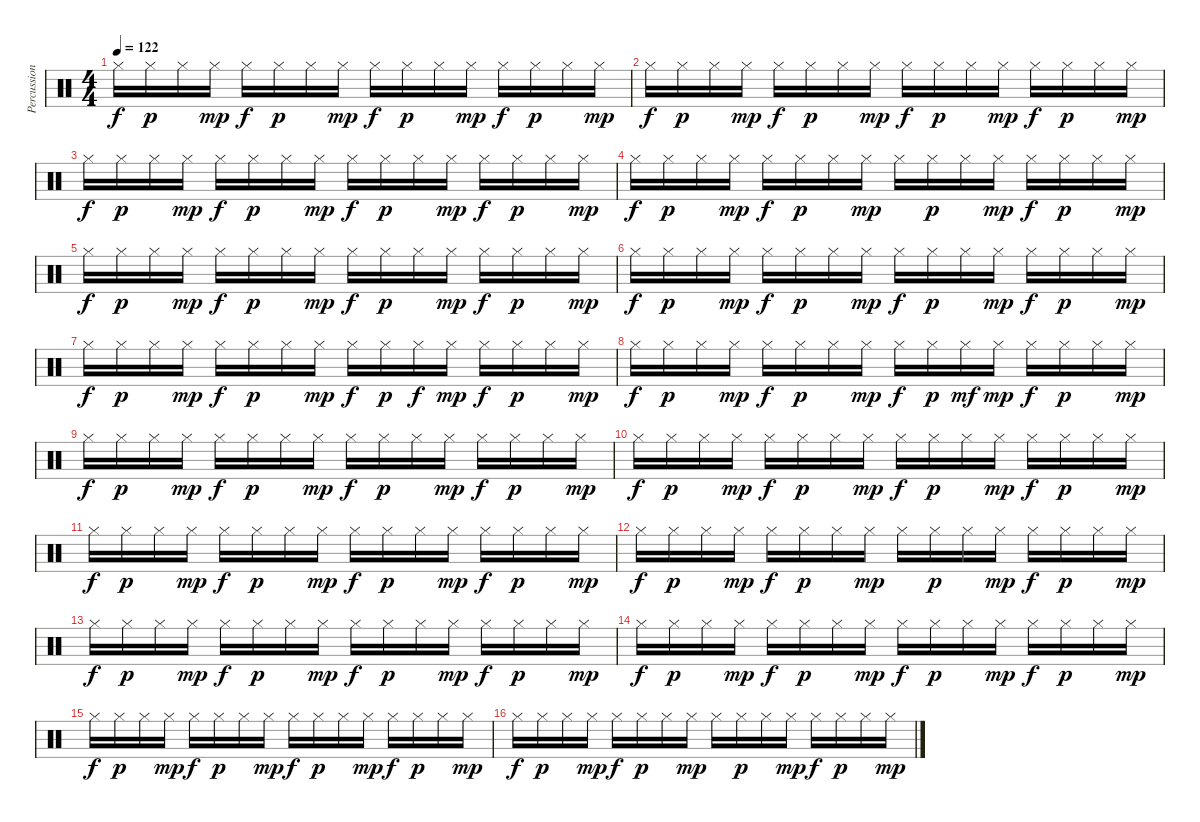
\track ("Percussioni" "Percussion") {instrument percussion}
\staff {score}
\articulation defaults
\ts (4 4)
\tempo 122
\clef neutral
\ks c "Hi-Hat (closed)".16{dy f} "Hi-Hat (closed)".16{dy p} "Hi-Hat (closed)".16 "Hi-Hat (closed)".16{dy mp} "Hi-Hat (closed)".16{dy f} "Hi-Hat (closed)".16{dy p} "Hi-Hat (closed)".16 "Hi-Hat (closed)".16{dy mp} "Hi-Hat (closed)".16{dy f} "Hi-Hat (closed)".16{dy p} "Hi-Hat (closed)".16 "Hi-Hat (closed)".16{dy mp} "Hi-Hat (closed)".16{dy f} "Hi-Hat (closed)".16{dy p} "Hi-Hat (closed)".16 "Hi-Hat (closed)".16{dy mp}
|
"Hi-Hat (closed)".16{dy f} "Hi-Hat (closed)".16{dy p} "Hi-Hat (closed)".16 "Hi-Hat (closed)".16{dy mp} "Hi-Hat (closed)".16{dy f} "Hi-Hat (closed)".16{dy p} "Hi-Hat (closed)".16 "Hi-Hat (closed)".16{dy mp} "Hi-Hat (closed)".16{dy f} "Hi-Hat (closed)".16{dy p} "Hi-Hat (closed)".16 "Hi-Hat (closed)".16{dy mp} "Hi-Hat (closed)".16{dy f} "Hi-Hat (closed)".16{dy p} "Hi-Hat (closed)".16 "Hi-Hat (closed)".16{dy mp} |
"Hi-Hat (closed)".16{dy f} "Hi-Hat (closed)".16{dy p} "Hi-Hat (closed)".16 "Hi-Hat (closed)".16{dy mp} "Hi-Hat (closed)".16{dy f} "Hi-Hat (closed)".16{dy p} "Hi-Hat (closed)".16 "Hi-Hat (closed)".16{dy mp} "Hi-Hat (closed)".16{dy f} "Hi-Hat (closed)".16{dy p} "Hi-Hat (closed)".16 "Hi-Hat (closed)".16{dy mp} "Hi-Hat (closed)".16{dy f} "Hi-Hat (closed)".16{dy p} "Hi-Hat (closed)".16 "Hi-Hat (closed)".16{dy mp} |
"Hi-Hat (closed)".16{dy f} "Hi-Hat (closed)".16{dy p} "Hi-Hat (closed)".16 "Hi-Hat (closed)".16{dy mp} "Hi-Hat (closed)".16{dy f} "Hi-Hat (closed)".16{dy p} "Hi-Hat (closed)".16 "Hi-Hat (closed)".16{dy mp} "Hi-Hat (closed)".16 "Hi-Hat (closed)".16{dy p} "Hi-Hat (closed)".16 "Hi-Hat (closed)".16{dy mp} "Hi-Hat (closed)".16{dy f} "Hi-Hat (closed)".16{dy p} "Hi-Hat (closed)".16 "Hi-Hat (closed)".16{dy mp} |
"Hi-Hat (closed)".16{dy f} "Hi-Hat (closed)".16{dy p} "Hi-Hat (closed)".16 "Hi-Hat (closed)".16{dy mp} "Hi-Hat (closed)".16{dy f} "Hi-Hat (closed)".16{dy p} "Hi-Hat (closed)".16 "Hi-Hat (closed)".16{dy mp} "Hi-Hat (closed)".16{dy f} "Hi-Hat (closed)".16{dy p} "Hi-Hat (closed)".16 "Hi-Hat (closed)".16{dy mp} "Hi-Hat (closed)".16{dy f} "Hi-Hat (closed)".16{dy p} "Hi-Hat (closed)".16 "Hi-Hat (closed)".16{dy mp} |
"Hi-Hat (closed)".16{dy f} "Hi-Hat (closed)".16{dy p} "Hi-Hat (closed)".16 "Hi-Hat (closed)".16{dy mp} "Hi-Hat (closed)".16{dy f} "Hi-Hat (closed)".16{dy p} "Hi-Hat (closed)".16 "Hi-Hat (closed)".16{dy mp} "Hi-Hat (closed)".16{dy f} "Hi-Hat (closed)".16{dy p} "Hi-Hat (closed)".16 "Hi-Hat (closed)".16{dy mp} "Hi-Hat (closed)".16{dy f} "Hi-Hat (closed)".16{dy p} "Hi-Hat (closed)".16 "Hi-Hat (closed)".16{dy mp} |
"Hi-Hat (closed)".16{dy f} "Hi-Hat (closed)".16{dy p} "Hi-Hat (closed)".16 "Hi-Hat (closed)".16{dy mp} "Hi-Hat (closed)".16{dy f} "Hi-Hat (closed)".16{dy p} "Hi-Hat (closed)".16 "Hi-Hat (closed)".16{dy mp} "Hi-Hat (closed)".16{dy f} "Hi-Hat (closed)".16{dy p} "Hi-Hat (closed)".16{dy f} "Hi-Hat (closed)".16{dy mp} "Hi-Hat (closed)".16{dy f} "Hi-Hat (closed)".16{dy p} "Hi-Hat (closed)".16 "Hi-Hat (closed)".16{dy mp} |
"Hi-Hat (closed)".16{dy f} "Hi-Hat (closed)".16{dy p} "Hi-Hat (closed)".16 "Hi-Hat (closed)".16{dy mp} "Hi-Hat (closed)".16{dy f} "Hi-Hat (closed)".16{dy p} "Hi-Hat (closed)".16 "Hi-Hat (closed)".16{dy mp} "Hi-Hat (closed)".16{dy f} "Hi-Hat (closed)".16{dy p} "Hi-Hat (closed)".16{dy mf} "Hi-Hat (closed)".16{dy mp} "Hi-Hat (closed)".16{dy f} "Hi-Hat (closed)".16{dy p} "Hi-Hat (closed)".16 "Hi-Hat (closed)".16{dy mp} |
"Hi-Hat (closed)".16{dy f} "Hi-Hat (closed)".16{dy p} "Hi-Hat (closed)".16 "Hi-Hat (closed)".16{dy mp} "Hi-Hat (closed)".16{dy f} "Hi-Hat (closed)".16{dy p} "Hi-Hat (closed)".16 "Hi-Hat (closed)".16{dy mp} "Hi-Hat (closed)".16{dy f} "Hi-Hat (closed)".16{dy p} "Hi-Hat (closed)".16 "Hi-Hat (closed)".16{dy mp} "Hi-Hat (closed)".16{dy f} "Hi-Hat (closed)".16{dy p} "Hi-Hat (closed)".16 "Hi-Hat (closed)".16{dy mp} |
"Hi-Hat (closed)".16{dy f} "Hi-Hat (closed)".16{dy p} "Hi-Hat (closed)".16 "Hi-Hat (closed)".16{dy mp} "Hi-Hat (closed)".16{dy f} "Hi-Hat (closed)".16{dy p} "Hi-Hat (closed)".16 "Hi-Hat (closed)".16{dy mp} "Hi-Hat (closed)".16{dy f} "Hi-Hat (closed)".16{dy p} "Hi-Hat (closed)".16 "Hi-Hat (closed)".16{dy mp} "Hi-Hat (closed)".16{dy f} "Hi-Hat (closed)".16{dy p} "Hi-Hat (closed)".16 "Hi-Hat (closed)".16{dy mp} |
"Hi-Hat (closed)".16{dy f} "Hi-Hat (closed)".16{dy p} "Hi-Hat (closed)".16 "Hi-Hat (closed)".16{dy mp} "Hi-Hat (closed)".16{dy f} "Hi-Hat (closed)".16{dy p} "Hi-Hat (closed)".16 "Hi-Hat (closed)".16{dy mp} "Hi-Hat (closed)".16{dy f} "Hi-Hat (closed)".16{dy p} "Hi-Hat (closed)".16 "Hi-Hat (closed)".16{dy mp} "Hi-Hat (closed)".16{dy f} "Hi-Hat (closed)".16{dy p} "Hi-Hat (closed)".16 "Hi-Hat (closed)".16{dy mp} |
"Hi-Hat (closed)".16{dy f} "Hi-Hat (closed)".16{dy p} "Hi-Hat (closed)".16 "Hi-Hat (closed)".16{dy mp} "Hi-Hat (closed)".16{dy f} "Hi-Hat (closed)".16{dy p} "Hi-Hat (closed)".16 "Hi-Hat (closed)".16{dy mp} "Hi-Hat (closed)".16 "Hi-Hat (closed)".16{dy p} "Hi-Hat (closed)".16 "Hi-Hat (closed)".16{dy mp} "Hi-Hat (closed)".16{dy f} "Hi-Hat (closed)".16{dy p} "Hi-Hat (closed)".16 "Hi-Hat (closed)".16{dy mp} |
"Hi-Hat (closed)".16{dy f} "Hi-Hat (closed)".16{dy p} "Hi-Hat (closed)".16 "Hi-Hat (closed)".16{dy mp} "Hi-Hat (closed)".16{dy f} "Hi-Hat (closed)".16{dy p} "Hi-Hat (closed)".16 "Hi-Hat (closed)".16{dy mp} "Hi-Hat (closed)".16{dy f} "Hi-Hat (closed)".16{dy p} "Hi-Hat (closed)".16 "Hi-Hat (closed)".16{dy mp} "Hi-Hat (closed)".16{dy f} "Hi-Hat (closed)".16{dy p} "Hi-Hat (closed)".16 "Hi-Hat (closed)".16{dy mp} |
"Hi-Hat (closed)".16{dy f} "Hi-Hat (closed)".16{dy p} "Hi-Hat (closed)".16 "Hi-Hat (closed)".16{dy mp} "Hi-Hat (closed)".16{dy f} "Hi-Hat (closed)".16{dy p} "Hi-Hat (closed)".16 "Hi-Hat (closed)".16{dy mp} "Hi-Hat (closed)".16{dy f} "Hi-Hat (closed)".16{dy p} "Hi-Hat (closed)".16 "Hi-Hat (closed)".16{dy mp} "Hi-Hat (closed)".16{dy f} "Hi-Hat (closed)".16{dy p} "Hi-Hat (closed)".16 "Hi-Hat (closed)".16{dy mp} |
"Hi-Hat (closed)".16{dy f} "Hi-Hat (closed)".16{dy p} "Hi-Hat (closed)".16 "Hi-Hat (closed)".16{dy mp} "Hi-Hat (closed)".16{dy f} "Hi-Hat (closed)".16{dy p} "Hi-Hat (closed)".16 "Hi-Hat (closed)".16{dy mp} "Hi-Hat (closed)".16{dy f} "Hi-Hat (closed)".16{dy p} "Hi-Hat (closed)".16 "Hi-Hat (closed)".16{dy mp} "Hi-Hat (closed)".16{dy f} "Hi-Hat (closed)".16{dy p} "Hi-Hat (closed)".16 "Hi-Hat (closed)".16{dy mp} |
"Hi-Hat (closed)".16{dy f} "Hi-Hat (closed)".16{dy p} "Hi-Hat (closed)".16 "Hi-Hat (closed)".16{dy mp} "Hi-Hat (closed)".16{dy f} "Hi-Hat (closed)".16{dy p} "Hi-Hat (closed)".16 "Hi-Hat (closed)".16{dy mp} "Hi-Hat (closed)".16 "Hi-Hat (closed)".16{dy p} "Hi-Hat (closed)".16 "Hi-Hat (closed)".16{dy mp} "Hi-Hat (closed)".16{dy f} "Hi-Hat (closed)".16{dy p} "Hi-Hat (closed)".16 "Hi-Hat (closed)".16{dy mp}
